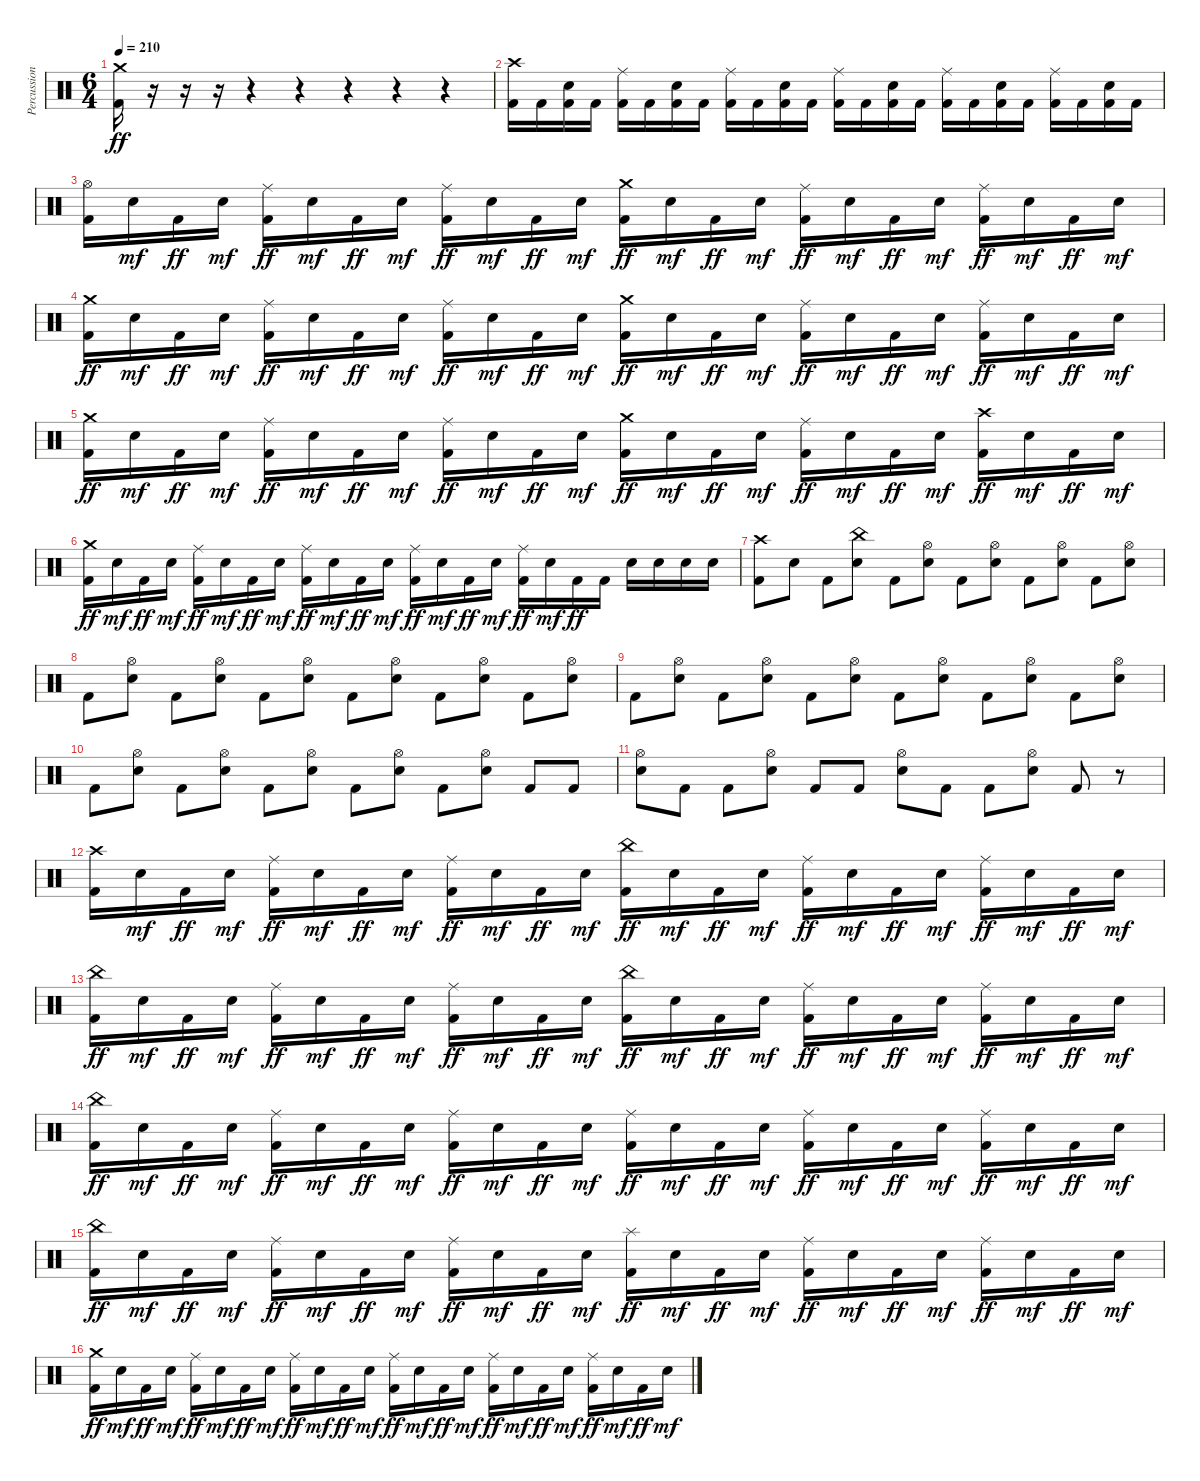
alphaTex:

\track ("Percussion" "Percussion") {instrument percussion}
\staff {score}
\articulation defaults
\ts (6 4)
\tempo 210
\clef neutral
\ks c
("Crash medium (hit)" "Kick (hit) 2").16{dy ff} r.16 r.16 r.16 r.4 r.4 r.4 r.4 r.4 |
("Crash high (hit)" "Kick (hit) 2").16 "Kick (hit) 2".16 ("Electric Snare (hit)" "Kick (hit) 2").16 "Kick (hit) 2".16 ("Ride (middle)" "Kick (hit) 2").16 "Kick (hit) 2".16 ("Electric Snare (hit)" "Kick (hit) 2").16 "Kick (hit) 2".16 ("Ride (middle)" "Kick (hit) 2").16 "Kick (hit) 2".16 ("Electric Snare (hit)" "Kick (hit) 2").16 "Kick (hit) 2".16 ("Ride (middle)" "Kick (hit) 2").16 "Kick (hit) 2".16 ("Electric Snare (hit)" "Kick (hit) 2").16 "Kick (hit) 2".16 ("Ride (middle)" "Kick (hit) 2").16 "Kick (hit) 2".16 ("Electric Snare (hit)" "Kick (hit) 2").16 "Kick (hit) 2".16 ("Ride (middle)" "Kick (hit) 2").16 "Kick (hit) 2".16 ("Electric Snare (hit)" "Kick (hit) 2").16 "Kick (hit) 2".16 |
("Hi-Hat (open)" "Kick (hit) 2").16 "Electric Snare (hit)".16{dy mf} "Kick (hit) 2".16{dy ff} "Electric Snare (hit)".16{dy mf} ("Ride (middle)" "Kick (hit) 2").16{dy ff} "Electric Snare (hit)".16{dy mf} "Kick (hit) 2".16{dy ff} "Electric Snare (hit)".16{dy mf} ("Ride (middle)" "Kick (hit) 2").16{dy ff} "Electric Snare (hit)".16{dy mf} "Kick (hit) 2".16{dy ff} "Electric Snare (hit)".16{dy mf} ("Crash medium (hit)" "Kick (hit) 2").16{dy ff} "Electric Snare (hit)".16{dy mf} "Kick (hit) 2".16{dy ff} "Electric Snare (hit)".16{dy mf} ("Ride (middle)" "Kick (hit) 2").16{dy ff} "Electric Snare (hit)".16{dy mf} "Kick (hit) 2".16{dy ff} "Electric Snare (hit)".16{dy mf} ("Ride (middle)" "Kick (hit) 2").16{dy ff} "Electric Snare (hit)".16{dy mf} "Kick (hit) 2".16{dy ff} "Electric Snare (hit)".16{dy mf} |
("Crash medium (hit)" "Kick (hit) 2").16{dy ff} "Electric Snare (hit)".16{dy mf} "Kick (hit) 2".16{dy ff} "Electric Snare (hit)".16{dy mf} ("Ride (middle)" "Kick (hit) 2").16{dy ff} "Electric Snare (hit)".16{dy mf} "Kick (hit) 2".16{dy ff} "Electric Snare (hit)".16{dy mf} ("Ride (middle)" "Kick (hit) 2").16{dy ff} "Electric Snare (hit)".16{dy mf} "Kick (hit) 2".16{dy ff} "Electric Snare (hit)".16{dy mf} ("Crash medium (hit)" "Kick (hit) 2").16{dy ff} "Electric Snare (hit)".16{dy mf} "Kick (hit) 2".16{dy ff} "Electric Snare (hit)".16{dy mf} ("Ride (middle)" "Kick (hit) 2").16{dy ff} "Electric Snare (hit)".16{dy mf} "Kick (hit) 2".16{dy ff} "Electric Snare (hit)".16{dy mf} ("Ride (middle)" "Kick (hit) 2").16{dy ff} "Electric Snare (hit)".16{dy mf} "Kick (hit) 2".16{dy ff} "Electric Snare (hit)".16{dy mf} |
("Crash medium (hit)" "Kick (hit) 2").16{dy ff} "Electric Snare (hit)".16{dy mf} "Kick (hit) 2".16{dy ff} "Electric Snare (hit)".16{dy mf} ("Ride (middle)" "Kick (hit) 2").16{dy ff} "Electric Snare (hit)".16{dy mf} "Kick (hit) 2".16{dy ff} "Electric Snare (hit)".16{dy mf} ("Ride (middle)" "Kick (hit) 2").16{dy ff} "Electric Snare (hit)".16{dy mf} "Kick (hit) 2".16{dy ff} "Electric Snare (hit)".16{dy mf} ("Crash medium (hit)" "Kick (hit) 2").16{dy ff} "Electric Snare (hit)".16{dy mf} "Kick (hit) 2".16{dy ff} "Electric Snare (hit)".16{dy mf} ("Ride (middle)" "Kick (hit) 2").16{dy ff} "Electric Snare (hit)".16{dy mf} "Kick (hit) 2".16{dy ff} "Electric Snare (hit)".16{dy mf} ("Crash high (hit)" "Kick (hit) 2").16{dy ff} "Electric Snare (hit)".16{dy mf} "Kick (hit) 2".16{dy ff} "Electric Snare (hit)".16{dy mf} |
("Crash medium (hit)" "Kick (hit) 2").16{dy ff} "Electric Snare (hit)".16{dy mf} "Kick (hit) 2".16{dy ff} "Electric Snare (hit)".16{dy mf} ("Ride (middle)" "Kick (hit) 2").16{dy ff} "Electric Snare (hit)".16{dy mf} "Kick (hit) 2".16{dy ff} "Electric Snare (hit)".16{dy mf} ("Ride (middle)" "Kick (hit) 2").16{dy ff} "Electric Snare (hit)".16{dy mf} "Kick (hit) 2".16{dy ff} "Electric Snare (hit)".16{dy mf} ("Ride (middle)" "Kick (hit) 2").16{dy ff} "Electric Snare (hit)".16{dy mf} "Kick (hit) 2".16{dy ff} "Electric Snare (hit)".16{dy mf} ("Ride (middle)" "Kick (hit) 2").16{dy ff} "Electric Snare (hit)".16{dy mf} "Kick (hit) 2".16{dy ff} "Kick (hit) 2".16 "Electric Snare (hit)".16 "Electric Snare (hit)".16 "Electric Snare (hit)".16 "Electric Snare (hit)".16 |
("Crash high (hit)" "Kick (hit) 2").8 "Electric Snare (hit)".8 "Kick (hit) 2".8 ("China (hit)" "Electric Snare (hit)").8 "Kick (hit) 2".8 ("Hi-Hat (open)" "Electric Snare (hit)").8 "Kick (hit) 2".8 ("Hi-Hat (open)" "Electric Snare (hit)").8 "Kick (hit) 2".8 ("Hi-Hat (open)" "Electric Snare (hit)").8 "Kick (hit) 2".8 ("Hi-Hat (open)" "Electric Snare (hit)").8 |
"Kick (hit) 2".8 ("Hi-Hat (open)" "Electric Snare (hit)").8 "Kick (hit) 2".8 ("Hi-Hat (open)" "Electric Snare (hit)").8 "Kick (hit) 2".8 ("Hi-Hat (open)" "Electric Snare (hit)").8 "Kick (hit) 2".8 ("Hi-Hat (open)" "Electric Snare (hit)").8 "Kick (hit) 2".8 ("Hi-Hat (open)" "Electric Snare (hit)").8 "Kick (hit) 2".8 ("Hi-Hat (open)" "Electric Snare (hit)").8 |
"Kick (hit) 2".8 ("Hi-Hat (open)" "Electric Snare (hit)").8 "Kick (hit) 2".8 ("Hi-Hat (open)" "Electric Snare (hit)").8 "Kick (hit) 2".8 ("Hi-Hat (open)" "Electric Snare (hit)").8 "Kick (hit) 2".8 ("Hi-Hat (open)" "Electric Snare (hit)").8 "Kick (hit) 2".8 ("Hi-Hat (open)" "Electric Snare (hit)").8 "Kick (hit) 2".8 ("Hi-Hat (open)" "Electric Snare (hit)").8 |
"Kick (hit) 2".8 ("Hi-Hat (open)" "Electric Snare (hit)").8 "Kick (hit) 2".8 ("Hi-Hat (open)" "Electric Snare (hit)").8 "Kick (hit) 2".8 ("Hi-Hat (open)" "Electric Snare (hit)").8 "Kick (hit) 2".8 ("Hi-Hat (open)" "Electric Snare (hit)").8 "Kick (hit) 2".8 ("Hi-Hat (open)" "Electric Snare (hit)").8 "Kick (hit) 2".8 "Kick (hit) 2".8 |
("Hi-Hat (open)" "Electric Snare (hit)").8 "Kick (hit) 2".8 "Kick (hit) 2".8 ("Hi-Hat (open)" "Electric Snare (hit)").8 "Kick (hit) 2".8 "Kick (hit) 2".8 ("Hi-Hat (open)" "Electric Snare (hit)").8 "Kick (hit) 2".8 "Kick (hit) 2".8 ("Hi-Hat (open)" "Electric Snare (hit)").8 "Kick (hit) 2".8 r.8 |
("Crash high (hit)" "Kick (hit) 2").16 "Electric Snare (hit)".16{dy mf} "Kick (hit) 2".16{dy ff} "Electric Snare (hit)".16{dy mf} ("Ride (middle)" "Kick (hit) 2").16{dy ff} "Electric Snare (hit)".16{dy mf} "Kick (hit) 2".16{dy ff} "Electric Snare (hit)".16{dy mf} ("Ride (middle)" "Kick (hit) 2").16{dy ff} "Electric Snare (hit)".16{dy mf} "Kick (hit) 2".16{dy ff} "Electric Snare (hit)".16{dy mf} ("China (hit)" "Kick (hit) 2").16{dy ff} "Electric Snare (hit)".16{dy mf} "Kick (hit) 2".16{dy ff} "Electric Snare (hit)".16{dy mf} ("Ride (middle)" "Kick (hit) 2").16{dy ff} "Electric Snare (hit)".16{dy mf} "Kick (hit) 2".16{dy ff} "Electric Snare (hit)".16{dy mf} ("Ride (middle)" "Kick (hit) 2").16{dy ff} "Electric Snare (hit)".16{dy mf} "Kick (hit) 2".16{dy ff} "Electric Snare (hit)".16{dy mf} |
("China (hit)" "Kick (hit) 2").16{dy ff} "Electric Snare (hit)".16{dy mf} "Kick (hit) 2".16{dy ff} "Electric Snare (hit)".16{dy mf} ("Ride (middle)" "Kick (hit) 2").16{dy ff} "Electric Snare (hit)".16{dy mf} "Kick (hit) 2".16{dy ff} "Electric Snare (hit)".16{dy mf} ("Ride (middle)" "Kick (hit) 2").16{dy ff} "Electric Snare (hit)".16{dy mf} "Kick (hit) 2".16{dy ff} "Electric Snare (hit)".16{dy mf} ("China (hit)" "Kick (hit) 2").16{dy ff} "Electric Snare (hit)".16{dy mf} "Kick (hit) 2".16{dy ff} "Electric Snare (hit)".16{dy mf} ("Ride (middle)" "Kick (hit) 2").16{dy ff} "Electric Snare (hit)".16{dy mf} "Kick (hit) 2".16{dy ff} "Electric Snare (hit)".16{dy mf} ("Ride (middle)" "Kick (hit) 2").16{dy ff} "Electric Snare (hit)".16{dy mf} "Kick (hit) 2".16{dy ff} "Electric Snare (hit)".16{dy mf} |
("China (hit)" "Kick (hit) 2").16{dy ff} "Electric Snare (hit)".16{dy mf} "Kick (hit) 2".16{dy ff} "Electric Snare (hit)".16{dy mf} ("Ride (middle)" "Kick (hit) 2").16{dy ff} "Electric Snare (hit)".16{dy mf} "Kick (hit) 2".16{dy ff} "Electric Snare (hit)".16{dy mf} ("Ride (middle)" "Kick (hit) 2").16{dy ff} "Electric Snare (hit)".16{dy mf} "Kick (hit) 2".16{dy ff} "Electric Snare (hit)".16{dy mf} ("Ride (middle)" "Kick (hit) 2").16{dy ff} "Electric Snare (hit)".16{dy mf} "Kick (hit) 2".16{dy ff} "Electric Snare (hit)".16{dy mf} ("Ride (middle)" "Kick (hit) 2").16{dy ff} "Electric Snare (hit)".16{dy mf} "Kick (hit) 2".16{dy ff} "Electric Snare (hit)".16{dy mf} ("Ride (middle)" "Kick (hit) 2").16{dy ff} "Electric Snare (hit)".16{dy mf} "Kick (hit) 2".16{dy ff} "Electric Snare (hit)".16{dy mf} |
("China (hit)" "Kick (hit) 2").16{dy ff} "Electric Snare (hit)".16{dy mf} "Kick (hit) 2".16{dy ff} "Electric Snare (hit)".16{dy mf} ("Ride (middle)" "Kick (hit) 2").16{dy ff} "Electric Snare (hit)".16{dy mf} "Kick (hit) 2".16{dy ff} "Electric Snare (hit)".16{dy mf} ("Ride (middle)" "Kick (hit) 2").16{dy ff} "Electric Snare (hit)".16{dy mf} "Kick (hit) 2".16{dy ff} "Electric Snare (hit)".16{dy mf} ("Splash (hit)" "Kick (hit) 2").16{dy ff} "Electric Snare (hit)".16{dy mf} "Kick (hit) 2".16{dy ff} "Electric Snare (hit)".16{dy mf} ("Ride (middle)" "Kick (hit) 2").16{dy ff} "Electric Snare (hit)".16{dy mf} "Kick (hit) 2".16{dy ff} "Electric Snare (hit)".16{dy mf} ("Ride (middle)" "Kick (hit) 2").16{dy ff} "Electric Snare (hit)".16{dy mf} "Kick (hit) 2".16{dy ff} "Electric Snare (hit)".16{dy mf} |
("Crash medium (hit)" "Kick (hit) 2").16{dy ff} "Electric Snare (hit)".16{dy mf} "Kick (hit) 2".16{dy ff} "Electric Snare (hit)".16{dy mf} ("Ride (middle)" "Kick (hit) 2").16{dy ff} "Electric Snare (hit)".16{dy mf} "Kick (hit) 2".16{dy ff} "Electric Snare (hit)".16{dy mf} ("Ride (middle)" "Kick (hit) 2").16{dy ff} "Electric Snare (hit)".16{dy mf} "Kick (hit) 2".16{dy ff} "Electric Snare (hit)".16{dy mf} ("Ride (middle)" "Kick (hit) 2").16{dy ff} "Electric Snare (hit)".16{dy mf} "Kick (hit) 2".16{dy ff} "Electric Snare (hit)".16{dy mf} ("Ride (middle)" "Kick (hit) 2").16{dy ff} "Electric Snare (hit)".16{dy mf} "Kick (hit) 2".16{dy ff} "Electric Snare (hit)".16{dy mf} ("Ride (middle)" "Kick (hit) 2").16{dy ff} "Electric Snare (hit)".16{dy mf} "Kick (hit) 2".16{dy ff} "Electric Snare (hit)".16{dy mf}
